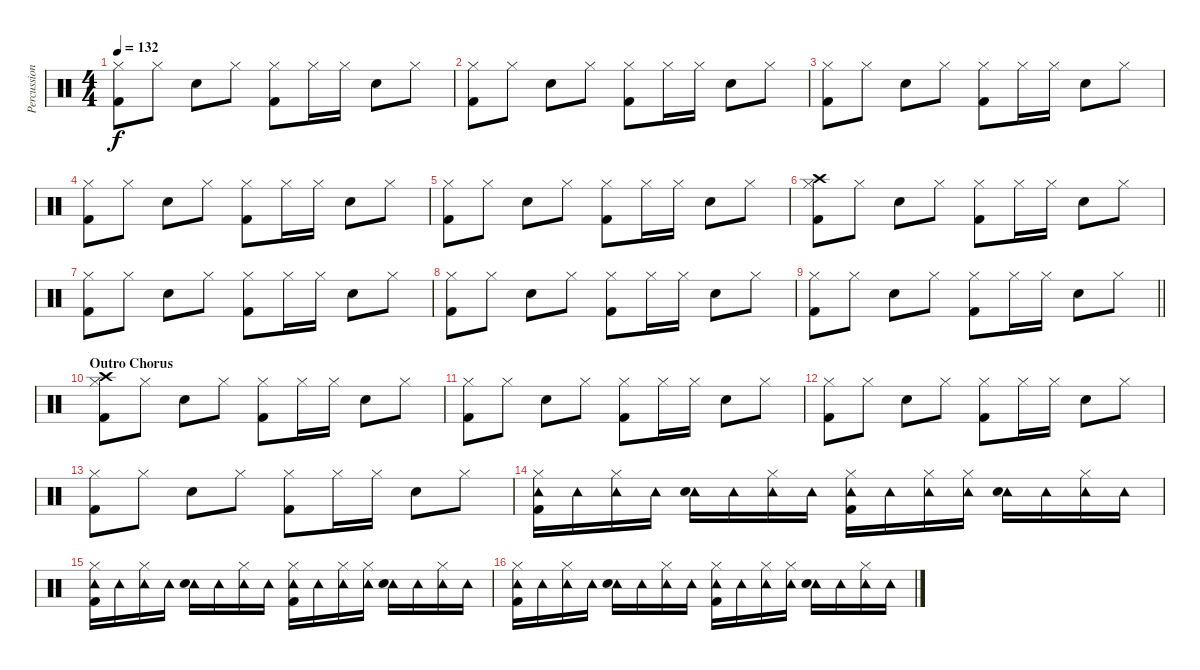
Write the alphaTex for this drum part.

\track ("Percussion" "Percussion") {instrument percussion}
\staff {score}
\articulation defaults
\ts (4 4)
\tempo 132
\clef neutral
\ks c
("Hi-Hat (closed)" "Kick (hit) 2").8{dy f} "Hi-Hat (closed)".8 "Snare (hit) 2".8 "Hi-Hat (closed)".8 ("Hi-Hat (closed)" "Kick (hit) 2").8 "Hi-Hat (closed)".16 "Hi-Hat (closed)".16 "Snare (hit) 2".8 "Hi-Hat (closed)".8 |
("Hi-Hat (closed)" "Kick (hit) 2").8 "Hi-Hat (closed)".8 "Snare (hit) 2".8 "Hi-Hat (closed)".8 ("Hi-Hat (closed)" "Kick (hit) 2").8 "Hi-Hat (closed)".16 "Hi-Hat (closed)".16 "Snare (hit) 2".8 "Hi-Hat (closed)".8 |
("Hi-Hat (closed)" "Kick (hit) 2").8 "Hi-Hat (closed)".8 "Snare (hit) 2".8 "Hi-Hat (closed)".8 ("Hi-Hat (closed)" "Kick (hit) 2").8 "Hi-Hat (closed)".16 "Hi-Hat (closed)".16 "Snare (hit) 2".8 "Hi-Hat (closed)".8 |
("Hi-Hat (closed)" "Kick (hit) 2").8 "Hi-Hat (closed)".8 "Snare (hit) 2".8 "Hi-Hat (closed)".8 ("Hi-Hat (closed)" "Kick (hit) 2").8 "Hi-Hat (closed)".16 "Hi-Hat (closed)".16 "Snare (hit) 2".8 "Hi-Hat (closed)".8 |
("Hi-Hat (closed)" "Kick (hit) 2").8 "Hi-Hat (closed)".8 "Snare (hit) 2".8 "Hi-Hat (closed)".8 ("Hi-Hat (closed)" "Kick (hit) 2").8 "Hi-Hat (closed)".16 "Hi-Hat (closed)".16 "Snare (hit) 2".8 "Hi-Hat (closed)".8 |
("Crash high (hit)" "Hi-Hat (closed)" "Kick (hit) 2").8 "Hi-Hat (closed)".8 "Snare (hit) 2".8 "Hi-Hat (closed)".8 ("Hi-Hat (closed)" "Kick (hit) 2").8 "Hi-Hat (closed)".16 "Hi-Hat (closed)".16 "Snare (hit) 2".8 "Hi-Hat (closed)".8 |
("Hi-Hat (closed)" "Kick (hit) 2").8 "Hi-Hat (closed)".8 "Snare (hit) 2".8 "Hi-Hat (closed)".8 ("Hi-Hat (closed)" "Kick (hit) 2").8 "Hi-Hat (closed)".16 "Hi-Hat (closed)".16 "Snare (hit) 2".8 "Hi-Hat (closed)".8 |
("Hi-Hat (closed)" "Kick (hit) 2").8 "Hi-Hat (closed)".8 "Snare (hit) 2".8 "Hi-Hat (closed)".8 ("Hi-Hat (closed)" "Kick (hit) 2").8 "Hi-Hat (closed)".16 "Hi-Hat (closed)".16 "Snare (hit) 2".8 "Hi-Hat (closed)".8 |
\barLineRight lightlight
("Hi-Hat (closed)" "Kick (hit) 2").8 "Hi-Hat (closed)".8 "Snare (hit) 2".8 "Hi-Hat (closed)".8 ("Hi-Hat (closed)" "Kick (hit) 2").8 "Hi-Hat (closed)".16 "Hi-Hat (closed)".16 "Snare (hit) 2".8 "Hi-Hat (closed)".8 |
\section ("" "Outro Chorus")
("Crash high (hit)" "Hi-Hat (closed)" "Kick (hit) 2").8 "Hi-Hat (closed)".8 "Snare (hit) 2".8 "Hi-Hat (closed)".8 ("Hi-Hat (closed)" "Kick (hit) 2").8 "Hi-Hat (closed)".16 "Hi-Hat (closed)".16 "Snare (hit) 2".8 "Hi-Hat (closed)".8 |
("Hi-Hat (closed)" "Kick (hit) 2").8 "Hi-Hat (closed)".8 "Snare (hit) 2".8 "Hi-Hat (closed)".8 ("Hi-Hat (closed)" "Kick (hit) 2").8 "Hi-Hat (closed)".16 "Hi-Hat (closed)".16 "Snare (hit) 2".8 "Hi-Hat (closed)".8 |
("Hi-Hat (closed)" "Kick (hit) 2").8 "Hi-Hat (closed)".8 "Snare (hit) 2".8 "Hi-Hat (closed)".8 ("Hi-Hat (closed)" "Kick (hit) 2").8 "Hi-Hat (closed)".16 "Hi-Hat (closed)".16 "Snare (hit) 2".8 "Hi-Hat (closed)".8 |
("Hi-Hat (closed)" "Kick (hit) 2").8 "Hi-Hat (closed)".8 "Snare (hit) 2".8 "Hi-Hat (closed)".8 ("Hi-Hat (closed)" "Kick (hit) 2").8 "Hi-Hat (closed)".16 "Hi-Hat (closed)".16 "Snare (hit) 2".8 "Hi-Hat (closed)".8 |
("Tambourine (hit)" "Hi-Hat (closed)" "Kick (hit) 2").16 "Tambourine (hit)".16 ("Tambourine (hit)" "Hi-Hat (closed)").16 "Tambourine (hit)".16 ("Tambourine (hit)" "Snare (hit) 2").16 "Tambourine (hit)".16 ("Tambourine (hit)" "Hi-Hat (closed)").16 "Tambourine (hit)".16 ("Tambourine (hit)" "Hi-Hat (closed)" "Kick (hit) 2").16 "Tambourine (hit)".16 ("Tambourine (hit)" "Hi-Hat (closed)").16 ("Tambourine (hit)" "Hi-Hat (closed)").16 ("Tambourine (hit)" "Snare (hit) 2").16 "Tambourine (hit)".16 ("Tambourine (hit)" "Hi-Hat (closed)").16 "Tambourine (hit)".16 |
("Tambourine (hit)" "Hi-Hat (closed)" "Kick (hit) 2").16 "Tambourine (hit)".16 ("Tambourine (hit)" "Hi-Hat (closed)").16 "Tambourine (hit)".16 ("Tambourine (hit)" "Snare (hit) 2").16 "Tambourine (hit)".16 ("Tambourine (hit)" "Hi-Hat (closed)").16 "Tambourine (hit)".16 ("Tambourine (hit)" "Hi-Hat (closed)" "Kick (hit) 2").16 "Tambourine (hit)".16 ("Tambourine (hit)" "Hi-Hat (closed)").16 ("Tambourine (hit)" "Hi-Hat (closed)").16 ("Tambourine (hit)" "Snare (hit) 2").16 "Tambourine (hit)".16 ("Tambourine (hit)" "Hi-Hat (closed)").16 "Tambourine (hit)".16 |
("Tambourine (hit)" "Hi-Hat (closed)" "Kick (hit) 2").16 "Tambourine (hit)".16 ("Tambourine (hit)" "Hi-Hat (closed)").16 "Tambourine (hit)".16 ("Tambourine (hit)" "Snare (hit) 2").16 "Tambourine (hit)".16 ("Tambourine (hit)" "Hi-Hat (closed)").16 "Tambourine (hit)".16 ("Tambourine (hit)" "Hi-Hat (closed)" "Kick (hit) 2").16 "Tambourine (hit)".16 ("Tambourine (hit)" "Hi-Hat (closed)").16 ("Tambourine (hit)" "Hi-Hat (closed)").16 ("Tambourine (hit)" "Snare (hit) 2").16 "Tambourine (hit)".16 ("Tambourine (hit)" "Hi-Hat (closed)").16 "Tambourine (hit)".16
